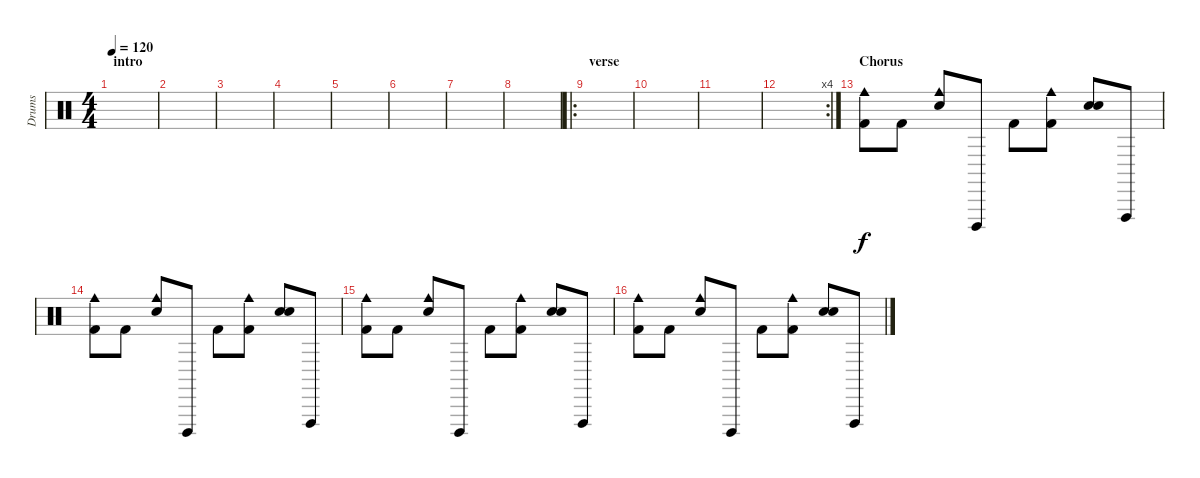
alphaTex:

\track ("Drums" "Drums") {instrument percussion}
\staff {score}
\articulation defaults
\ts (4 4)
\section ("" "intro")
\tempo 120
\clef neutral
\ks c
|
|
|
|
|
|
|
|
\ro
\section ("" "verse")
|
|
|
\rc 4
|
\section ("" "Chorus")
("Cowbell medium (hit)" "Kick (hit) 2").8 "Kick (hit) 2".8 ("Cowbell medium (hit)" "Electric Snare (hit)").8 "Cuica (open)".8 "Kick (hit) 2".8 ("Cowbell medium (hit)" "Kick (hit) 2").8 ("Hand Clap (hit)" "Electric Snare (hit)").8 "Vibraslap (hit)".8 |
("Cowbell medium (hit)" "Kick (hit) 2").8 "Kick (hit) 2".8 ("Cowbell medium (hit)" "Electric Snare (hit)").8 "Cuica (open)".8 "Kick (hit) 2".8 ("Cowbell medium (hit)" "Kick (hit) 2").8 ("Hand Clap (hit)" "Electric Snare (hit)").8 "Vibraslap (hit)".8 |
("Cowbell medium (hit)" "Kick (hit) 2").8 "Kick (hit) 2".8 ("Cowbell medium (hit)" "Electric Snare (hit)").8 "Cuica (open)".8 "Kick (hit) 2".8 ("Cowbell medium (hit)" "Kick (hit) 2").8 ("Hand Clap (hit)" "Electric Snare (hit)").8 "Vibraslap (hit)".8 |
("Cowbell medium (hit)" "Kick (hit) 2").8 "Kick (hit) 2".8 ("Cowbell medium (hit)" "Electric Snare (hit)").8 "Cuica (open)".8 "Kick (hit) 2".8 ("Cowbell medium (hit)" "Kick (hit) 2").8 ("Hand Clap (hit)" "Electric Snare (hit)").8 "Vibraslap (hit)".8
